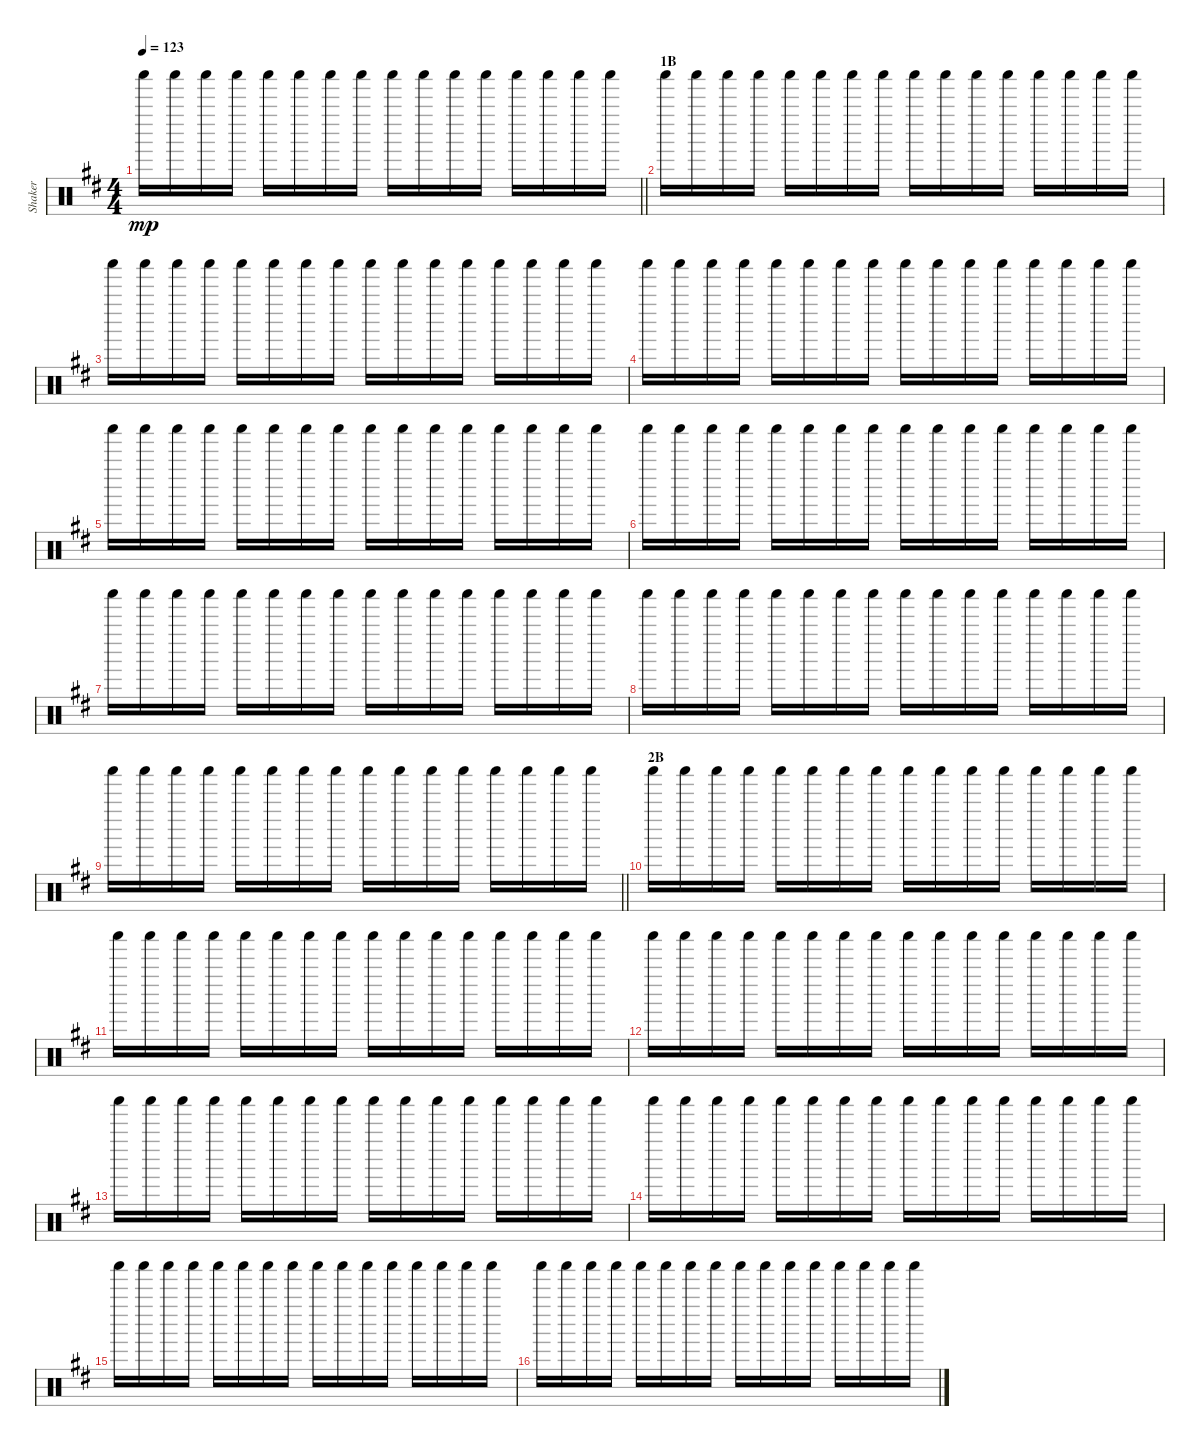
\track ("Shaker" "Shaker") {instrument percussion}
\staff {score}
\articulation defaults
\ts (4 4)
\tempo 123
\clef neutral
\barLineRight lightlight
\ks d "Shaker (hit)".16{dy mp} "Shaker (hit)".16 "Shaker (hit)".16 "Shaker (hit)".16 "Shaker (hit)".16 "Shaker (hit)".16 "Shaker (hit)".16 "Shaker (hit)".16 "Shaker (hit)".16 "Shaker (hit)".16 "Shaker (hit)".16 "Shaker (hit)".16 "Shaker (hit)".16 "Shaker (hit)".16 "Shaker (hit)".16 "Shaker (hit)".16
|
\section ("" "1B")
"Shaker (hit)".16 "Shaker (hit)".16 "Shaker (hit)".16 "Shaker (hit)".16 "Shaker (hit)".16 "Shaker (hit)".16 "Shaker (hit)".16 "Shaker (hit)".16 "Shaker (hit)".16 "Shaker (hit)".16 "Shaker (hit)".16 "Shaker (hit)".16 "Shaker (hit)".16 "Shaker (hit)".16 "Shaker (hit)".16 "Shaker (hit)".16 |
"Shaker (hit)".16 "Shaker (hit)".16 "Shaker (hit)".16 "Shaker (hit)".16 "Shaker (hit)".16 "Shaker (hit)".16 "Shaker (hit)".16 "Shaker (hit)".16 "Shaker (hit)".16 "Shaker (hit)".16 "Shaker (hit)".16 "Shaker (hit)".16 "Shaker (hit)".16 "Shaker (hit)".16 "Shaker (hit)".16 "Shaker (hit)".16 |
"Shaker (hit)".16 "Shaker (hit)".16 "Shaker (hit)".16 "Shaker (hit)".16 "Shaker (hit)".16 "Shaker (hit)".16 "Shaker (hit)".16 "Shaker (hit)".16 "Shaker (hit)".16 "Shaker (hit)".16 "Shaker (hit)".16 "Shaker (hit)".16 "Shaker (hit)".16 "Shaker (hit)".16 "Shaker (hit)".16 "Shaker (hit)".16 |
"Shaker (hit)".16 "Shaker (hit)".16 "Shaker (hit)".16 "Shaker (hit)".16 "Shaker (hit)".16 "Shaker (hit)".16 "Shaker (hit)".16 "Shaker (hit)".16 "Shaker (hit)".16 "Shaker (hit)".16 "Shaker (hit)".16 "Shaker (hit)".16 "Shaker (hit)".16 "Shaker (hit)".16 "Shaker (hit)".16 "Shaker (hit)".16 |
"Shaker (hit)".16 "Shaker (hit)".16 "Shaker (hit)".16 "Shaker (hit)".16 "Shaker (hit)".16 "Shaker (hit)".16 "Shaker (hit)".16 "Shaker (hit)".16 "Shaker (hit)".16 "Shaker (hit)".16 "Shaker (hit)".16 "Shaker (hit)".16 "Shaker (hit)".16 "Shaker (hit)".16 "Shaker (hit)".16 "Shaker (hit)".16 |
"Shaker (hit)".16 "Shaker (hit)".16 "Shaker (hit)".16 "Shaker (hit)".16 "Shaker (hit)".16 "Shaker (hit)".16 "Shaker (hit)".16 "Shaker (hit)".16 "Shaker (hit)".16 "Shaker (hit)".16 "Shaker (hit)".16 "Shaker (hit)".16 "Shaker (hit)".16 "Shaker (hit)".16 "Shaker (hit)".16 "Shaker (hit)".16 |
"Shaker (hit)".16 "Shaker (hit)".16 "Shaker (hit)".16 "Shaker (hit)".16 "Shaker (hit)".16 "Shaker (hit)".16 "Shaker (hit)".16 "Shaker (hit)".16 "Shaker (hit)".16 "Shaker (hit)".16 "Shaker (hit)".16 "Shaker (hit)".16 "Shaker (hit)".16 "Shaker (hit)".16 "Shaker (hit)".16 "Shaker (hit)".16 |
\barLineRight lightlight "Shaker (hit)".16 "Shaker (hit)".16 "Shaker (hit)".16 "Shaker (hit)".16 "Shaker (hit)".16 "Shaker (hit)".16 "Shaker (hit)".16 "Shaker (hit)".16 "Shaker (hit)".16 "Shaker (hit)".16 "Shaker (hit)".16 "Shaker (hit)".16 "Shaker (hit)".16 "Shaker (hit)".16 "Shaker (hit)".16 "Shaker (hit)".16
|
\section ("" "2B")
"Shaker (hit)".16 "Shaker (hit)".16 "Shaker (hit)".16 "Shaker (hit)".16 "Shaker (hit)".16 "Shaker (hit)".16 "Shaker (hit)".16 "Shaker (hit)".16 "Shaker (hit)".16 "Shaker (hit)".16 "Shaker (hit)".16 "Shaker (hit)".16 "Shaker (hit)".16 "Shaker (hit)".16 "Shaker (hit)".16 "Shaker (hit)".16 |
"Shaker (hit)".16 "Shaker (hit)".16 "Shaker (hit)".16 "Shaker (hit)".16 "Shaker (hit)".16 "Shaker (hit)".16 "Shaker (hit)".16 "Shaker (hit)".16 "Shaker (hit)".16 "Shaker (hit)".16 "Shaker (hit)".16 "Shaker (hit)".16 "Shaker (hit)".16 "Shaker (hit)".16 "Shaker (hit)".16 "Shaker (hit)".16 |
"Shaker (hit)".16 "Shaker (hit)".16 "Shaker (hit)".16 "Shaker (hit)".16 "Shaker (hit)".16 "Shaker (hit)".16 "Shaker (hit)".16 "Shaker (hit)".16 "Shaker (hit)".16 "Shaker (hit)".16 "Shaker (hit)".16 "Shaker (hit)".16 "Shaker (hit)".16 "Shaker (hit)".16 "Shaker (hit)".16 "Shaker (hit)".16 |
"Shaker (hit)".16 "Shaker (hit)".16 "Shaker (hit)".16 "Shaker (hit)".16 "Shaker (hit)".16 "Shaker (hit)".16 "Shaker (hit)".16 "Shaker (hit)".16 "Shaker (hit)".16 "Shaker (hit)".16 "Shaker (hit)".16 "Shaker (hit)".16 "Shaker (hit)".16 "Shaker (hit)".16 "Shaker (hit)".16 "Shaker (hit)".16 |
"Shaker (hit)".16 "Shaker (hit)".16 "Shaker (hit)".16 "Shaker (hit)".16 "Shaker (hit)".16 "Shaker (hit)".16 "Shaker (hit)".16 "Shaker (hit)".16 "Shaker (hit)".16 "Shaker (hit)".16 "Shaker (hit)".16 "Shaker (hit)".16 "Shaker (hit)".16 "Shaker (hit)".16 "Shaker (hit)".16 "Shaker (hit)".16 |
"Shaker (hit)".16 "Shaker (hit)".16 "Shaker (hit)".16 "Shaker (hit)".16 "Shaker (hit)".16 "Shaker (hit)".16 "Shaker (hit)".16 "Shaker (hit)".16 "Shaker (hit)".16 "Shaker (hit)".16 "Shaker (hit)".16 "Shaker (hit)".16 "Shaker (hit)".16 "Shaker (hit)".16 "Shaker (hit)".16 "Shaker (hit)".16 |
"Shaker (hit)".16 "Shaker (hit)".16 "Shaker (hit)".16 "Shaker (hit)".16 "Shaker (hit)".16 "Shaker (hit)".16 "Shaker (hit)".16 "Shaker (hit)".16 "Shaker (hit)".16 "Shaker (hit)".16 "Shaker (hit)".16 "Shaker (hit)".16 "Shaker (hit)".16 "Shaker (hit)".16 "Shaker (hit)".16 "Shaker (hit)".16
